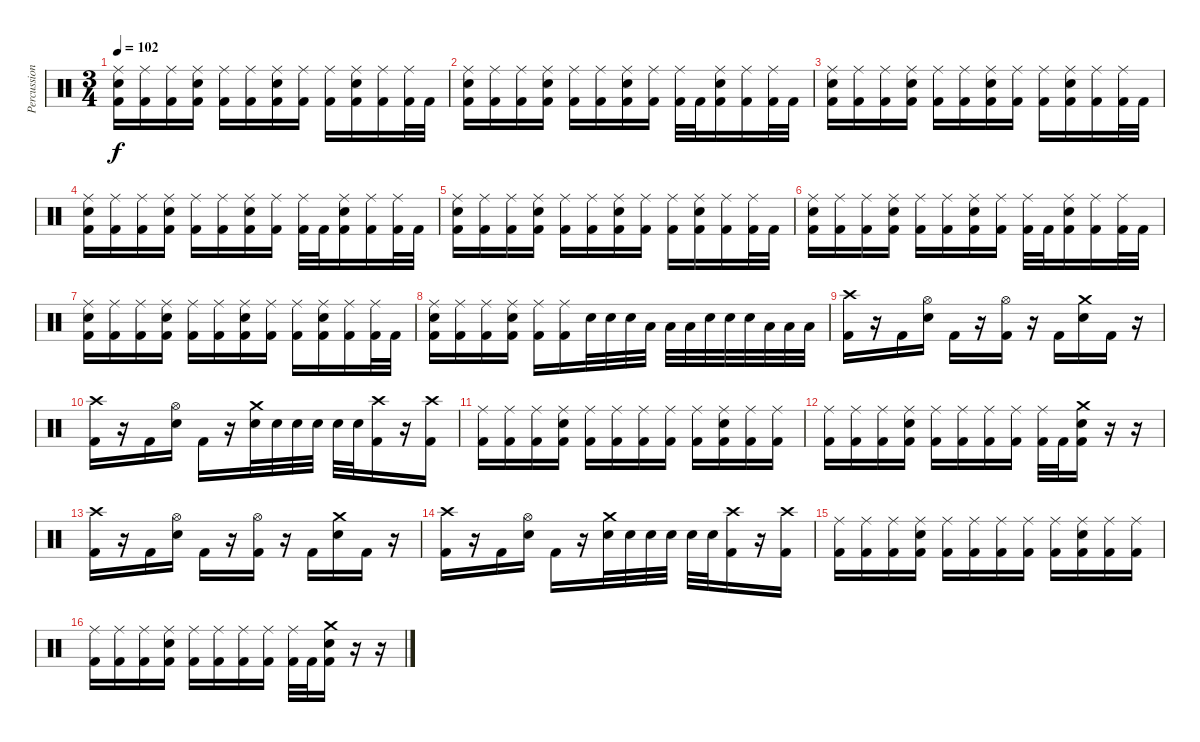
\track ("Percussion" "Percussion") {instrument percussion}
\staff {score}
\articulation defaults
\ts (3 4)
\tempo 102
\clef neutral
\ks c
("Ride (middle)" "Electric Snare (hit)" "Kick (hit) 2").16{dy f} ("Ride (middle)" "Kick (hit) 2").16 ("Ride (middle)" "Kick (hit) 2").16 ("Ride (middle)" "Electric Snare (hit)" "Kick (hit) 2").16 ("Ride (middle)" "Kick (hit) 2").16 ("Ride (middle)" "Kick (hit) 2").16 ("Ride (middle)" "Electric Snare (hit)" "Kick (hit) 2").16 ("Ride (middle)" "Kick (hit) 2").16 ("Ride (middle)" "Kick (hit) 2").16 ("Ride (middle)" "Electric Snare (hit)" "Kick (hit) 2").16 ("Ride (middle)" "Kick (hit) 2").16 ("Ride (middle)" "Kick (hit) 2").32 "Kick (hit) 2".32 |
("Ride (middle)" "Electric Snare (hit)" "Kick (hit) 2").16 ("Ride (middle)" "Kick (hit) 2").16 ("Ride (middle)" "Kick (hit) 2").16 ("Ride (middle)" "Electric Snare (hit)" "Kick (hit) 2").16 ("Ride (middle)" "Kick (hit) 2").16 ("Ride (middle)" "Kick (hit) 2").16 ("Ride (middle)" "Electric Snare (hit)" "Kick (hit) 2").16 ("Ride (middle)" "Kick (hit) 2").16 ("Ride (middle)" "Kick (hit) 2").32 "Kick (hit) 2".32 ("Ride (middle)" "Electric Snare (hit)" "Kick (hit) 2").16 ("Ride (middle)" "Kick (hit) 2").16 ("Ride (middle)" "Kick (hit) 2").32 "Kick (hit) 2".32 |
("Ride (middle)" "Electric Snare (hit)" "Kick (hit) 2").16 ("Ride (middle)" "Kick (hit) 2").16 ("Ride (middle)" "Kick (hit) 2").16 ("Ride (middle)" "Electric Snare (hit)" "Kick (hit) 2").16 ("Ride (middle)" "Kick (hit) 2").16 ("Ride (middle)" "Kick (hit) 2").16 ("Ride (middle)" "Electric Snare (hit)" "Kick (hit) 2").16 ("Ride (middle)" "Kick (hit) 2").16 ("Ride (middle)" "Kick (hit) 2").16 ("Ride (middle)" "Electric Snare (hit)" "Kick (hit) 2").16 ("Ride (middle)" "Kick (hit) 2").16 ("Ride (middle)" "Kick (hit) 2").32 "Kick (hit) 2".32 |
("Ride (middle)" "Electric Snare (hit)" "Kick (hit) 2").16 ("Ride (middle)" "Kick (hit) 2").16 ("Ride (middle)" "Kick (hit) 2").16 ("Ride (middle)" "Electric Snare (hit)" "Kick (hit) 2").16 ("Ride (middle)" "Kick (hit) 2").16 ("Ride (middle)" "Kick (hit) 2").16 ("Ride (middle)" "Electric Snare (hit)" "Kick (hit) 2").16 ("Ride (middle)" "Kick (hit) 2").16 ("Ride (middle)" "Kick (hit) 2").32 "Kick (hit) 2".32 ("Ride (middle)" "Electric Snare (hit)" "Kick (hit) 2").16 ("Ride (middle)" "Kick (hit) 2").16 ("Ride (middle)" "Kick (hit) 2").32 "Kick (hit) 2".32 |
("Ride (middle)" "Electric Snare (hit)" "Kick (hit) 2").16 ("Ride (middle)" "Kick (hit) 2").16 ("Ride (middle)" "Kick (hit) 2").16 ("Ride (middle)" "Electric Snare (hit)" "Kick (hit) 2").16 ("Ride (middle)" "Kick (hit) 2").16 ("Ride (middle)" "Kick (hit) 2").16 ("Ride (middle)" "Electric Snare (hit)" "Kick (hit) 2").16 ("Ride (middle)" "Kick (hit) 2").16 ("Ride (middle)" "Kick (hit) 2").16 ("Ride (middle)" "Electric Snare (hit)" "Kick (hit) 2").16 ("Ride (middle)" "Kick (hit) 2").16 ("Ride (middle)" "Kick (hit) 2").32 "Kick (hit) 2".32 |
("Ride (middle)" "Electric Snare (hit)" "Kick (hit) 2").16 ("Ride (middle)" "Kick (hit) 2").16 ("Ride (middle)" "Kick (hit) 2").16 ("Ride (middle)" "Electric Snare (hit)" "Kick (hit) 2").16 ("Ride (middle)" "Kick (hit) 2").16 ("Ride (middle)" "Kick (hit) 2").16 ("Ride (middle)" "Electric Snare (hit)" "Kick (hit) 2").16 ("Ride (middle)" "Kick (hit) 2").16 ("Ride (middle)" "Kick (hit) 2").32 "Kick (hit) 2".32 ("Ride (middle)" "Electric Snare (hit)" "Kick (hit) 2").16 ("Ride (middle)" "Kick (hit) 2").16 ("Ride (middle)" "Kick (hit) 2").32 "Kick (hit) 2".32 |
("Ride (middle)" "Electric Snare (hit)" "Kick (hit) 2").16 ("Ride (middle)" "Kick (hit) 2").16 ("Ride (middle)" "Kick (hit) 2").16 ("Ride (middle)" "Electric Snare (hit)" "Kick (hit) 2").16 ("Ride (middle)" "Kick (hit) 2").16 ("Ride (middle)" "Kick (hit) 2").16 ("Ride (middle)" "Electric Snare (hit)" "Kick (hit) 2").16 ("Ride (middle)" "Kick (hit) 2").16 ("Ride (middle)" "Kick (hit) 2").16 ("Ride (middle)" "Electric Snare (hit)" "Kick (hit) 2").16 ("Ride (middle)" "Kick (hit) 2").16 ("Ride (middle)" "Kick (hit) 2").32 "Kick (hit) 2".32 |
("Ride (middle)" "Electric Snare (hit)" "Kick (hit) 2").16 ("Ride (middle)" "Kick (hit) 2").16 ("Ride (middle)" "Kick (hit) 2").16 ("Ride (middle)" "Electric Snare (hit)" "Kick (hit) 2").16 ("Ride (middle)" "Kick (hit) 2").16 ("Ride (middle)" "Kick (hit) 2").16 "Electric Snare (hit)".32 "Electric Snare (hit)".32 "Electric Snare (hit)".32 "Low Tom (hit)".32 "Low Tom (hit)".32 "Low Tom (hit)".32 "Electric Snare (hit)".32 "Electric Snare (hit)".32 "Electric Snare (hit)".32 "Low Tom (hit)".32 "Low Tom (hit)".32 "Low Tom (hit)".32 |
("Crash high (hit)" "Kick (hit) 2").16 r.16 "Kick (hit) 2".16 ("Hi-Hat (open)" "Electric Snare (hit)").16 "Kick (hit) 2".16 r.16 ("Hi-Hat (open)" "Kick (hit) 2").16 r.16 "Kick (hit) 2".16 ("Crash medium (hit)" "Electric Snare (hit)").16 "Kick (hit) 2".16 r.16 |
("Crash high (hit)" "Kick (hit) 2").16 r.16 "Kick (hit) 2".16 ("Hi-Hat (open)" "Electric Snare (hit)").16 "Kick (hit) 2".16 r.16 ("Crash medium (hit)" "Electric Snare (hit)").32 "Electric Snare (hit)".32 "Electric Snare (hit)".32 "Electric Snare (hit)".32 "Electric Snare (hit)".32 "Electric Snare (hit)".32 ("Crash high (hit)" "Kick (hit) 2").16 r.16 ("Crash high (hit)" "Kick (hit) 2").16 |
("Ride (middle)" "Kick (hit) 2").16 ("Ride (middle)" "Kick (hit) 2").16 ("Ride (middle)" "Kick (hit) 2").16 ("Ride (middle)" "Electric Snare (hit)" "Kick (hit) 2").16 ("Ride (middle)" "Kick (hit) 2").16 ("Ride (middle)" "Kick (hit) 2").16 ("Ride (middle)" "Kick (hit) 2").16 ("Ride (middle)" "Kick (hit) 2").16 ("Ride (middle)" "Kick (hit) 2").16 ("Ride (middle)" "Electric Snare (hit)" "Kick (hit) 2").16 ("Ride (middle)" "Kick (hit) 2").16 ("Ride (middle)" "Kick (hit) 2").16 |
("Ride (middle)" "Kick (hit) 2").16 ("Ride (middle)" "Kick (hit) 2").16 ("Ride (middle)" "Kick (hit) 2").16 ("Ride (middle)" "Electric Snare (hit)" "Kick (hit) 2").16 ("Ride (middle)" "Kick (hit) 2").16 ("Ride (middle)" "Kick (hit) 2").16 ("Ride (middle)" "Kick (hit) 2").16 ("Ride (middle)" "Kick (hit) 2").16 ("Ride (middle)" "Kick (hit) 2").32 "Kick (hit) 2".32 ("Crash medium (hit)" "Electric Snare (hit)" "Kick (hit) 2").16 r.16 r.16 |
("Crash high (hit)" "Kick (hit) 2").16 r.16 "Kick (hit) 2".16 ("Hi-Hat (open)" "Electric Snare (hit)").16 "Kick (hit) 2".16 r.16 ("Hi-Hat (open)" "Kick (hit) 2").16 r.16 "Kick (hit) 2".16 ("Crash medium (hit)" "Electric Snare (hit)").16 "Kick (hit) 2".16 r.16 |
("Crash high (hit)" "Kick (hit) 2").16 r.16 "Kick (hit) 2".16 ("Hi-Hat (open)" "Electric Snare (hit)").16 "Kick (hit) 2".16 r.16 ("Crash medium (hit)" "Electric Snare (hit)").32 "Electric Snare (hit)".32 "Electric Snare (hit)".32 "Electric Snare (hit)".32 "Electric Snare (hit)".32 "Electric Snare (hit)".32 ("Crash high (hit)" "Kick (hit) 2").16 r.16 ("Crash high (hit)" "Kick (hit) 2").16 |
("Ride (middle)" "Kick (hit) 2").16 ("Ride (middle)" "Kick (hit) 2").16 ("Ride (middle)" "Kick (hit) 2").16 ("Ride (middle)" "Electric Snare (hit)" "Kick (hit) 2").16 ("Ride (middle)" "Kick (hit) 2").16 ("Ride (middle)" "Kick (hit) 2").16 ("Ride (middle)" "Kick (hit) 2").16 ("Ride (middle)" "Kick (hit) 2").16 ("Ride (middle)" "Kick (hit) 2").16 ("Ride (middle)" "Electric Snare (hit)" "Kick (hit) 2").16 ("Ride (middle)" "Kick (hit) 2").16 ("Ride (middle)" "Kick (hit) 2").16 |
("Ride (middle)" "Kick (hit) 2").16 ("Ride (middle)" "Kick (hit) 2").16 ("Ride (middle)" "Kick (hit) 2").16 ("Ride (middle)" "Electric Snare (hit)" "Kick (hit) 2").16 ("Ride (middle)" "Kick (hit) 2").16 ("Ride (middle)" "Kick (hit) 2").16 ("Ride (middle)" "Kick (hit) 2").16 ("Ride (middle)" "Kick (hit) 2").16 ("Ride (middle)" "Kick (hit) 2").32 "Kick (hit) 2".32 ("Crash medium (hit)" "Electric Snare (hit)" "Kick (hit) 2").16 r.16 r.16
